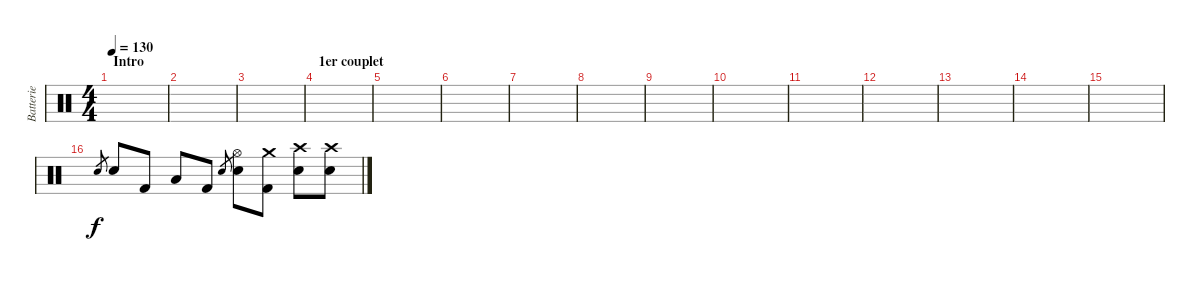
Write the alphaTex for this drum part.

\track ("Batterie" "Batterie") {instrument percussion}
\staff {score}
\articulation defaults
\ts (4 4)
\section ("" "Intro")
\tempo 130
\clef neutral
\ks c
|
|
|
\section ("" "1er couplet")
|
|
|
|
|
|
|
|
|
|
|
|
"Snare (hit) 2".8{gr} "Snare (hit) 2".8 "Kick (hit) 2".8 "Low Tom (hit)".8 "Kick (hit) 2".8 "Snare (hit) 2".8{gr} ("Hi-Hat (open)" "Snare (hit) 2").8 ("Crash medium (hit)" "Kick (hit) 2").8 ("Crash high (hit)" "Snare (hit) 2").8 ("Crash high (hit)" "Snare (hit) 2").8
